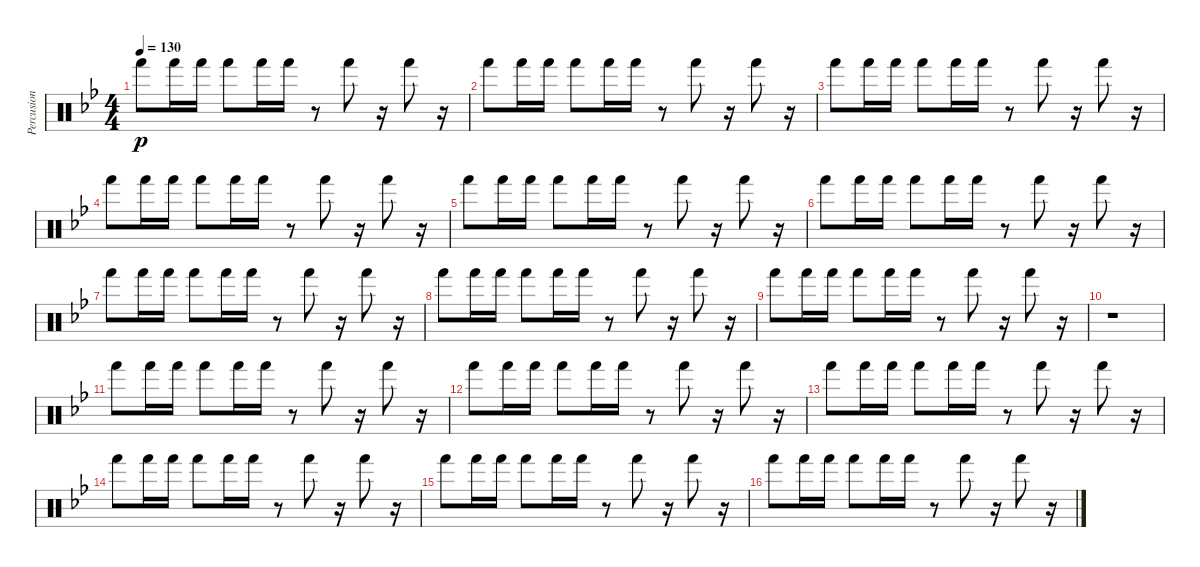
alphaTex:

\track ("Percusion III" "Percusion ") {instrument percussion}
\staff {score}
\articulation defaults
\ts (4 4)
\tempo 130
\clef neutral
\ks gminor "Hand (hit)".8{dy p} "Hand (hit)".16 "Hand (hit)".16 "Hand (hit)".8 "Hand (hit)".16 "Hand (hit)".16
r.8 "Hand (hit)".8 r.16 "Hand (hit)".8 r.16 |
"Hand (hit)".8 "Hand (hit)".16 "Hand (hit)".16 "Hand (hit)".8 "Hand (hit)".16 "Hand (hit)".16 r.8 "Hand (hit)".8 r.16 "Hand (hit)".8 r.16 |
"Hand (hit)".8 "Hand (hit)".16 "Hand (hit)".16 "Hand (hit)".8 "Hand (hit)".16 "Hand (hit)".16 r.8 "Hand (hit)".8 r.16 "Hand (hit)".8 r.16 |
"Hand (hit)".8 "Hand (hit)".16 "Hand (hit)".16 "Hand (hit)".8 "Hand (hit)".16 "Hand (hit)".16 r.8 "Hand (hit)".8 r.16 "Hand (hit)".8 r.16 |
"Hand (hit)".8 "Hand (hit)".16 "Hand (hit)".16 "Hand (hit)".8 "Hand (hit)".16 "Hand (hit)".16 r.8 "Hand (hit)".8 r.16 "Hand (hit)".8 r.16 |
"Hand (hit)".8 "Hand (hit)".16 "Hand (hit)".16 "Hand (hit)".8 "Hand (hit)".16 "Hand (hit)".16 r.8 "Hand (hit)".8 r.16 "Hand (hit)".8 r.16 |
"Hand (hit)".8 "Hand (hit)".16 "Hand (hit)".16 "Hand (hit)".8 "Hand (hit)".16 "Hand (hit)".16 r.8 "Hand (hit)".8 r.16 "Hand (hit)".8 r.16 |
"Hand (hit)".8 "Hand (hit)".16 "Hand (hit)".16 "Hand (hit)".8 "Hand (hit)".16 "Hand (hit)".16 r.8 "Hand (hit)".8 r.16 "Hand (hit)".8 r.16 |
"Hand (hit)".8 "Hand (hit)".16 "Hand (hit)".16 "Hand (hit)".8 "Hand (hit)".16 "Hand (hit)".16 r.8 "Hand (hit)".8 r.16 "Hand (hit)".8 r.16 |
r.1 |
"Hand (hit)".8 "Hand (hit)".16 "Hand (hit)".16 "Hand (hit)".8 "Hand (hit)".16 "Hand (hit)".16 r.8 "Hand (hit)".8 r.16 "Hand (hit)".8 r.16 |
"Hand (hit)".8 "Hand (hit)".16 "Hand (hit)".16 "Hand (hit)".8 "Hand (hit)".16 "Hand (hit)".16 r.8 "Hand (hit)".8 r.16 "Hand (hit)".8 r.16 |
"Hand (hit)".8 "Hand (hit)".16 "Hand (hit)".16 "Hand (hit)".8 "Hand (hit)".16 "Hand (hit)".16 r.8 "Hand (hit)".8 r.16 "Hand (hit)".8 r.16 |
"Hand (hit)".8 "Hand (hit)".16 "Hand (hit)".16 "Hand (hit)".8 "Hand (hit)".16 "Hand (hit)".16 r.8 "Hand (hit)".8 r.16 "Hand (hit)".8 r.16 |
"Hand (hit)".8 "Hand (hit)".16 "Hand (hit)".16 "Hand (hit)".8 "Hand (hit)".16 "Hand (hit)".16 r.8 "Hand (hit)".8 r.16 "Hand (hit)".8 r.16 |
"Hand (hit)".8 "Hand (hit)".16 "Hand (hit)".16 "Hand (hit)".8 "Hand (hit)".16 "Hand (hit)".16 r.8 "Hand (hit)".8 r.16 "Hand (hit)".8 r.16
